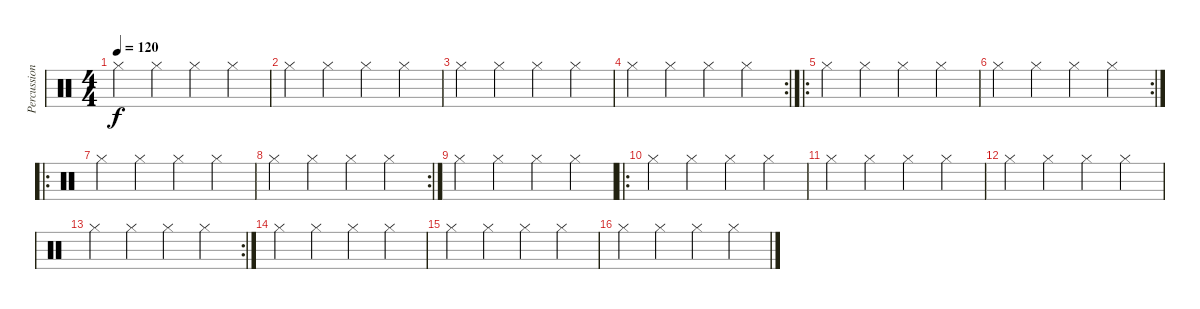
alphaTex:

\track ("Percussioni" "Percussion") {instrument percussion}
\staff {score}
\articulation defaults
\ts (4 4)
\tempo 120
\clef neutral
\ks c "Hi-Hat (closed)".4{dy f} "Hi-Hat (closed)".4 "Hi-Hat (closed)".4 "Hi-Hat (closed)".4
|
"Hi-Hat (closed)".4 "Hi-Hat (closed)".4 "Hi-Hat (closed)".4 "Hi-Hat (closed)".4 |
"Hi-Hat (closed)".4 "Hi-Hat (closed)".4 "Hi-Hat (closed)".4 "Hi-Hat (closed)".4 |
\rc 2 "Hi-Hat (closed)".4 "Hi-Hat (closed)".4 "Hi-Hat (closed)".4 "Hi-Hat (closed)".4
|
\ro "Hi-Hat (closed)".4 "Hi-Hat (closed)".4 "Hi-Hat (closed)".4 "Hi-Hat (closed)".4
|
\rc 2 "Hi-Hat (closed)".4 "Hi-Hat (closed)".4 "Hi-Hat (closed)".4 "Hi-Hat (closed)".4
|
\ro "Hi-Hat (closed)".4 "Hi-Hat (closed)".4 "Hi-Hat (closed)".4 "Hi-Hat (closed)".4
|
\rc 2 "Hi-Hat (closed)".4 "Hi-Hat (closed)".4 "Hi-Hat (closed)".4 "Hi-Hat (closed)".4
|
"Hi-Hat (closed)".4 "Hi-Hat (closed)".4 "Hi-Hat (closed)".4 "Hi-Hat (closed)".4 |
\ro "Hi-Hat (closed)".4 "Hi-Hat (closed)".4 "Hi-Hat (closed)".4 "Hi-Hat (closed)".4
|
"Hi-Hat (closed)".4 "Hi-Hat (closed)".4 "Hi-Hat (closed)".4 "Hi-Hat (closed)".4 |
"Hi-Hat (closed)".4 "Hi-Hat (closed)".4 "Hi-Hat (closed)".4 "Hi-Hat (closed)".4 |
\rc 2 "Hi-Hat (closed)".4 "Hi-Hat (closed)".4 "Hi-Hat (closed)".4 "Hi-Hat (closed)".4
|
"Hi-Hat (closed)".4 "Hi-Hat (closed)".4 "Hi-Hat (closed)".4 "Hi-Hat (closed)".4 |
"Hi-Hat (closed)".4 "Hi-Hat (closed)".4 "Hi-Hat (closed)".4 "Hi-Hat (closed)".4 |
"Hi-Hat (closed)".4 "Hi-Hat (closed)".4 "Hi-Hat (closed)".4 "Hi-Hat (closed)".4
